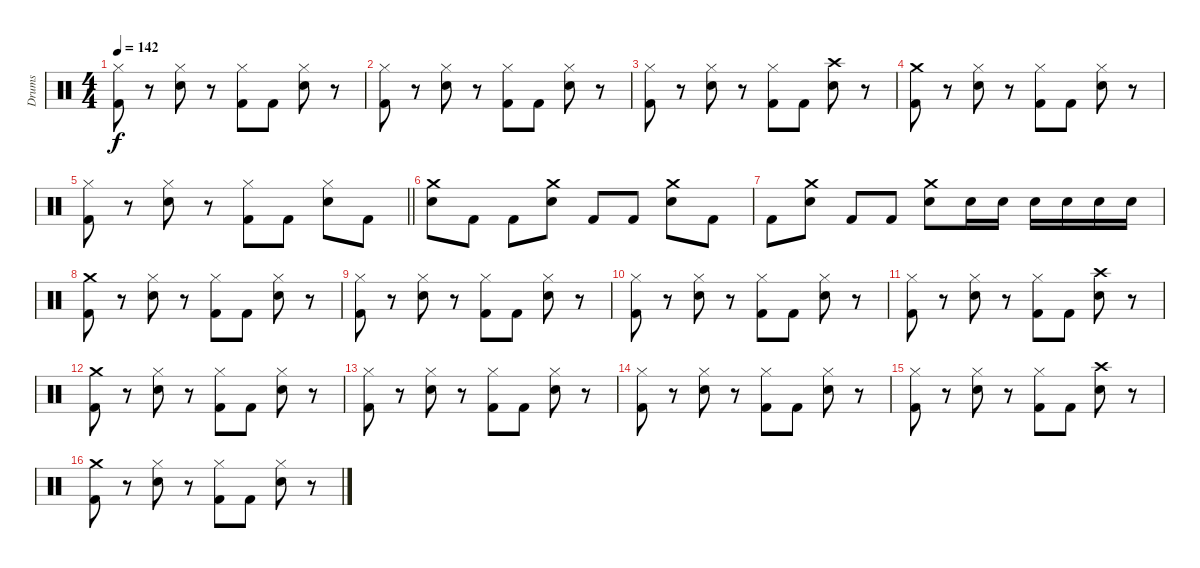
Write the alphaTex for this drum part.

\track ("Drums" "Drums") {instrument percussion}
\staff {score}
\articulation defaults
\ts (4 4)
\tempo 142
\clef neutral
\ks c
("Hi-Hat (closed)" "Kick (hit) 2").8{dy f} r.8 ("Hi-Hat (closed)" "Electric Snare (hit)").8 r.8 ("Hi-Hat (closed)" "Kick (hit) 2").8 "Kick (hit) 2".8 ("Hi-Hat (closed)" "Electric Snare (hit)").8 r.8 |
("Hi-Hat (closed)" "Kick (hit) 2").8 r.8 ("Hi-Hat (closed)" "Electric Snare (hit)").8 r.8 ("Hi-Hat (closed)" "Kick (hit) 2").8 "Kick (hit) 2".8 ("Hi-Hat (closed)" "Electric Snare (hit)").8 r.8 |
("Hi-Hat (closed)" "Kick (hit) 2").8 r.8 ("Hi-Hat (closed)" "Electric Snare (hit)").8 r.8 ("Hi-Hat (closed)" "Kick (hit) 2").8 "Kick (hit) 2".8 ("Crash high (hit)" "Electric Snare (hit)").8 r.8 |
("Crash medium (hit)" "Kick (hit) 2").8 r.8 ("Hi-Hat (closed)" "Electric Snare (hit)").8 r.8 ("Hi-Hat (closed)" "Kick (hit) 2").8 "Kick (hit) 2".8 ("Hi-Hat (closed)" "Electric Snare (hit)").8 r.8 |
\barLineRight lightlight
("Hi-Hat (closed)" "Kick (hit) 2").8 r.8 ("Hi-Hat (closed)" "Electric Snare (hit)").8 r.8 ("Hi-Hat (closed)" "Kick (hit) 2").8 "Kick (hit) 2".8 ("Hi-Hat (closed)" "Electric Snare (hit)").8 "Kick (hit) 2".8 |
("Crash medium (hit)" "Electric Snare (hit)").8 "Kick (hit) 2".8 "Kick (hit) 2".8 ("Crash medium (hit)" "Electric Snare (hit)").8 "Kick (hit) 2".8 "Kick (hit) 2".8 ("Crash medium (hit)" "Electric Snare (hit)").8 "Kick (hit) 2".8 |
"Kick (hit) 2".8 ("Crash medium (hit)" "Electric Snare (hit)").8 "Kick (hit) 2".8 "Kick (hit) 2".8 ("Crash medium (hit)" "Electric Snare (hit)").8 "Electric Snare (hit)".16 "Electric Snare (hit)".16 "Electric Snare (hit)".16 "Electric Snare (hit)".16 "Electric Snare (hit)".16 "Electric Snare (hit)".16 |
("Crash medium (hit)" "Kick (hit) 2").8 r.8 ("Hi-Hat (closed)" "Electric Snare (hit)").8 r.8 ("Hi-Hat (closed)" "Kick (hit) 2").8 "Kick (hit) 2".8 ("Hi-Hat (closed)" "Electric Snare (hit)").8 r.8 |
("Hi-Hat (closed)" "Kick (hit) 2").8 r.8 ("Hi-Hat (closed)" "Electric Snare (hit)").8 r.8 ("Hi-Hat (closed)" "Kick (hit) 2").8 "Kick (hit) 2".8 ("Hi-Hat (closed)" "Electric Snare (hit)").8 r.8 |
("Hi-Hat (closed)" "Kick (hit) 2").8 r.8 ("Hi-Hat (closed)" "Electric Snare (hit)").8 r.8 ("Hi-Hat (closed)" "Kick (hit) 2").8 "Kick (hit) 2".8 ("Hi-Hat (closed)" "Electric Snare (hit)").8 r.8 |
("Hi-Hat (closed)" "Kick (hit) 2").8 r.8 ("Hi-Hat (closed)" "Electric Snare (hit)").8 r.8 ("Hi-Hat (closed)" "Kick (hit) 2").8 "Kick (hit) 2".8 ("Crash high (hit)" "Electric Snare (hit)").8 r.8 |
("Crash medium (hit)" "Kick (hit) 2").8 r.8 ("Hi-Hat (closed)" "Electric Snare (hit)").8 r.8 ("Hi-Hat (closed)" "Kick (hit) 2").8 "Kick (hit) 2".8 ("Hi-Hat (closed)" "Electric Snare (hit)").8 r.8 |
("Hi-Hat (closed)" "Kick (hit) 2").8 r.8 ("Hi-Hat (closed)" "Electric Snare (hit)").8 r.8 ("Hi-Hat (closed)" "Kick (hit) 2").8 "Kick (hit) 2".8 ("Hi-Hat (closed)" "Electric Snare (hit)").8 r.8 |
("Hi-Hat (closed)" "Kick (hit) 2").8 r.8 ("Hi-Hat (closed)" "Electric Snare (hit)").8 r.8 ("Hi-Hat (closed)" "Kick (hit) 2").8 "Kick (hit) 2".8 ("Hi-Hat (closed)" "Electric Snare (hit)").8 r.8 |
("Hi-Hat (closed)" "Kick (hit) 2").8 r.8 ("Hi-Hat (closed)" "Electric Snare (hit)").8 r.8 ("Hi-Hat (closed)" "Kick (hit) 2").8 "Kick (hit) 2".8 ("Crash high (hit)" "Electric Snare (hit)").8 r.8 |
("Crash medium (hit)" "Kick (hit) 2").8 r.8 ("Hi-Hat (closed)" "Electric Snare (hit)").8 r.8 ("Hi-Hat (closed)" "Kick (hit) 2").8 "Kick (hit) 2".8 ("Hi-Hat (closed)" "Electric Snare (hit)").8 r.8
